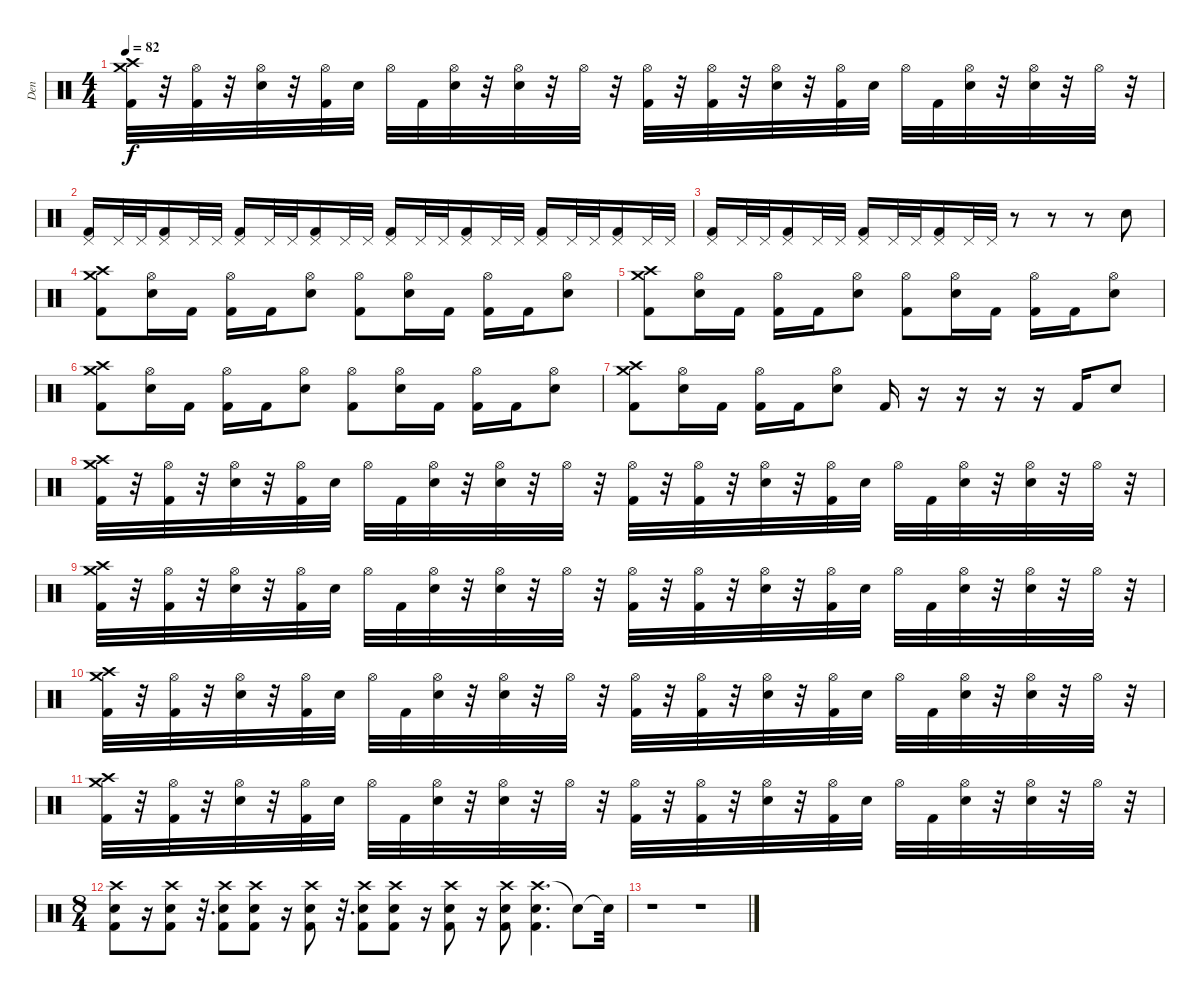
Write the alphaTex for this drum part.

\track ("Den" "Den") {instrument percussion}
\staff {score}
\articulation defaults
\ts (4 4)
\tempo 82
\clef neutral
\ks c
("Crash high (hit)" "Crash medium (hit)" "Kick (hit) 2").32{dy f} r.32 ("Hi-Hat (open)" "Kick (hit) 2").32 r.32 ("Hi-Hat (open)" "Electric Snare (hit)").32 r.32 ("Hi-Hat (open)" "Kick (hit) 2").32 "Electric Snare (hit)".32 "Hi-Hat (open)".32 "Kick (hit) 2".32 ("Hi-Hat (open)" "Electric Snare (hit)").32 r.32 ("Hi-Hat (open)" "Electric Snare (hit)").32 r.32 "Hi-Hat (open)".32 r.32 ("Hi-Hat (open)" "Kick (hit) 2").32 r.32 ("Hi-Hat (open)" "Kick (hit) 2").32 r.32 ("Hi-Hat (open)" "Electric Snare (hit)").32 r.32 ("Hi-Hat (open)" "Kick (hit) 2").32 "Electric Snare (hit)".32 "Hi-Hat (open)".32 "Kick (hit) 2".32 ("Hi-Hat (open)" "Electric Snare (hit)").32 r.32 ("Hi-Hat (open)" "Electric Snare (hit)").32 r.32 "Hi-Hat (open)".32 r.32 |
("Pedal Hi-Hat (hit)" "Kick (hit) 2").16 "Pedal Hi-Hat (hit)".32 "Pedal Hi-Hat (hit)".32 ("Pedal Hi-Hat (hit)" "Kick (hit) 2").16 "Pedal Hi-Hat (hit)".32 "Pedal Hi-Hat (hit)".32 ("Pedal Hi-Hat (hit)" "Kick (hit) 2").16 "Pedal Hi-Hat (hit)".32 "Pedal Hi-Hat (hit)".32 ("Pedal Hi-Hat (hit)" "Kick (hit) 2").16 "Pedal Hi-Hat (hit)".32 "Pedal Hi-Hat (hit)".32 ("Pedal Hi-Hat (hit)" "Kick (hit) 2").16 "Pedal Hi-Hat (hit)".32 "Pedal Hi-Hat (hit)".32 ("Pedal Hi-Hat (hit)" "Kick (hit) 2").16 "Pedal Hi-Hat (hit)".32 "Pedal Hi-Hat (hit)".32 ("Pedal Hi-Hat (hit)" "Kick (hit) 2").16 "Pedal Hi-Hat (hit)".32 "Pedal Hi-Hat (hit)".32 ("Pedal Hi-Hat (hit)" "Kick (hit) 2").16 "Pedal Hi-Hat (hit)".32 "Pedal Hi-Hat (hit)".32 |
("Pedal Hi-Hat (hit)" "Kick (hit) 2").16 "Pedal Hi-Hat (hit)".32 "Pedal Hi-Hat (hit)".32 ("Pedal Hi-Hat (hit)" "Kick (hit) 2").16 "Pedal Hi-Hat (hit)".32 "Pedal Hi-Hat (hit)".32 ("Pedal Hi-Hat (hit)" "Kick (hit) 2").16 "Pedal Hi-Hat (hit)".32 "Pedal Hi-Hat (hit)".32 ("Pedal Hi-Hat (hit)" "Kick (hit) 2").16 "Pedal Hi-Hat (hit)".32 "Pedal Hi-Hat (hit)".32 r.8 r.8 r.8 "Electric Snare (hit)".8 |
("Crash high (hit)" "Crash medium (hit)" "Kick (hit) 2").8 ("Hi-Hat (open)" "Electric Snare (hit)").16 "Kick (hit) 2".16 ("Hi-Hat (open)" "Kick (hit) 2").16 "Kick (hit) 2".16 ("Hi-Hat (open)" "Electric Snare (hit)").8 ("Hi-Hat (open)" "Kick (hit) 2").8 ("Hi-Hat (open)" "Electric Snare (hit)").16 "Kick (hit) 2".16 ("Hi-Hat (open)" "Kick (hit) 2").16 "Kick (hit) 2".16 ("Hi-Hat (open)" "Electric Snare (hit)").8 |
("Crash high (hit)" "Crash medium (hit)" "Kick (hit) 2").8 ("Hi-Hat (open)" "Electric Snare (hit)").16 "Kick (hit) 2".16 ("Hi-Hat (open)" "Kick (hit) 2").16 "Kick (hit) 2".16 ("Hi-Hat (open)" "Electric Snare (hit)").8 ("Hi-Hat (open)" "Kick (hit) 2").8 ("Hi-Hat (open)" "Electric Snare (hit)").16 "Kick (hit) 2".16 ("Hi-Hat (open)" "Kick (hit) 2").16 "Kick (hit) 2".16 ("Hi-Hat (open)" "Electric Snare (hit)").8 |
("Crash high (hit)" "Crash medium (hit)" "Kick (hit) 2").8 ("Hi-Hat (open)" "Electric Snare (hit)").16 "Kick (hit) 2".16 ("Hi-Hat (open)" "Kick (hit) 2").16 "Kick (hit) 2".16 ("Hi-Hat (open)" "Electric Snare (hit)").8 ("Hi-Hat (open)" "Kick (hit) 2").8 ("Hi-Hat (open)" "Electric Snare (hit)").16 "Kick (hit) 2".16 ("Hi-Hat (open)" "Kick (hit) 2").16 "Kick (hit) 2".16 ("Hi-Hat (open)" "Electric Snare (hit)").8 |
("Crash high (hit)" "Crash medium (hit)" "Kick (hit) 2").8 ("Hi-Hat (open)" "Electric Snare (hit)").16 "Kick (hit) 2".16 ("Hi-Hat (open)" "Kick (hit) 2").16 "Kick (hit) 2".16 ("Hi-Hat (open)" "Electric Snare (hit)").8 "Kick (hit) 2".16 r.16 r.16 r.16 r.16 "Kick (hit) 2".16 "Electric Snare (hit)".8 |
("Crash high (hit)" "Crash medium (hit)" "Kick (hit) 2").32 r.32 ("Hi-Hat (open)" "Kick (hit) 2").32 r.32 ("Hi-Hat (open)" "Electric Snare (hit)").32 r.32 ("Hi-Hat (open)" "Kick (hit) 2").32 "Electric Snare (hit)".32 "Hi-Hat (open)".32 "Kick (hit) 2".32 ("Hi-Hat (open)" "Electric Snare (hit)").32 r.32 ("Hi-Hat (open)" "Electric Snare (hit)").32 r.32 "Hi-Hat (open)".32 r.32 ("Hi-Hat (open)" "Kick (hit) 2").32 r.32 ("Hi-Hat (open)" "Kick (hit) 2").32 r.32 ("Hi-Hat (open)" "Electric Snare (hit)").32 r.32 ("Hi-Hat (open)" "Kick (hit) 2").32 "Electric Snare (hit)".32 "Hi-Hat (open)".32 "Kick (hit) 2".32 ("Hi-Hat (open)" "Electric Snare (hit)").32 r.32 ("Hi-Hat (open)" "Electric Snare (hit)").32 r.32 "Hi-Hat (open)".32 r.32 |
("Crash high (hit)" "Crash medium (hit)" "Kick (hit) 2").32 r.32 ("Hi-Hat (open)" "Kick (hit) 2").32 r.32 ("Hi-Hat (open)" "Electric Snare (hit)").32 r.32 ("Hi-Hat (open)" "Kick (hit) 2").32 "Electric Snare (hit)".32 "Hi-Hat (open)".32 "Kick (hit) 2".32 ("Hi-Hat (open)" "Electric Snare (hit)").32 r.32 ("Hi-Hat (open)" "Electric Snare (hit)").32 r.32 "Hi-Hat (open)".32 r.32 ("Hi-Hat (open)" "Kick (hit) 2").32 r.32 ("Hi-Hat (open)" "Kick (hit) 2").32 r.32 ("Hi-Hat (open)" "Electric Snare (hit)").32 r.32 ("Hi-Hat (open)" "Kick (hit) 2").32 "Electric Snare (hit)".32 "Hi-Hat (open)".32 "Kick (hit) 2".32 ("Hi-Hat (open)" "Electric Snare (hit)").32 r.32 ("Hi-Hat (open)" "Electric Snare (hit)").32 r.32 "Hi-Hat (open)".32 r.32 |
("Crash high (hit)" "Crash medium (hit)" "Kick (hit) 2").32 r.32 ("Hi-Hat (open)" "Kick (hit) 2").32 r.32 ("Hi-Hat (open)" "Electric Snare (hit)").32 r.32 ("Hi-Hat (open)" "Kick (hit) 2").32 "Electric Snare (hit)".32 "Hi-Hat (open)".32 "Kick (hit) 2".32 ("Hi-Hat (open)" "Electric Snare (hit)").32 r.32 ("Hi-Hat (open)" "Electric Snare (hit)").32 r.32 "Hi-Hat (open)".32 r.32 ("Hi-Hat (open)" "Kick (hit) 2").32 r.32 ("Hi-Hat (open)" "Kick (hit) 2").32 r.32 ("Hi-Hat (open)" "Electric Snare (hit)").32 r.32 ("Hi-Hat (open)" "Kick (hit) 2").32 "Electric Snare (hit)".32 "Hi-Hat (open)".32 "Kick (hit) 2".32 ("Hi-Hat (open)" "Electric Snare (hit)").32 r.32 ("Hi-Hat (open)" "Electric Snare (hit)").32 r.32 "Hi-Hat (open)".32 r.32 |
("Crash high (hit)" "Crash medium (hit)" "Kick (hit) 2").32 r.32 ("Hi-Hat (open)" "Kick (hit) 2").32 r.32 ("Hi-Hat (open)" "Electric Snare (hit)").32 r.32 ("Hi-Hat (open)" "Kick (hit) 2").32 "Electric Snare (hit)".32 "Hi-Hat (open)".32 "Kick (hit) 2".32 ("Hi-Hat (open)" "Electric Snare (hit)").32 r.32 ("Hi-Hat (open)" "Electric Snare (hit)").32 r.32 "Hi-Hat (open)".32 r.32 ("Hi-Hat (open)" "Kick (hit) 2").32 r.32 ("Hi-Hat (open)" "Kick (hit) 2").32 r.32 ("Hi-Hat (open)" "Electric Snare (hit)").32 r.32 ("Hi-Hat (open)" "Kick (hit) 2").32 "Electric Snare (hit)".32 "Hi-Hat (open)".32 "Kick (hit) 2".32 ("Hi-Hat (open)" "Electric Snare (hit)").32 r.32 ("Hi-Hat (open)" "Electric Snare (hit)").32 r.32 "Hi-Hat (open)".32 r.32 |
\ts (8 4)
("Crash high (hit)" "Electric Snare (hit)" "Kick (hit) 2").8 r.16 ("Crash high (hit)" "Electric Snare (hit)" "Kick (hit) 2").8 r.32{d} ("Crash high (hit)" "Electric Snare (hit)" "Kick (hit) 2").8 ("Crash high (hit)" "Electric Snare (hit)" "Kick (hit) 2").8 r.16 ("Crash high (hit)" "Electric Snare (hit)" "Kick (hit) 2").8 r.32{d} ("Crash high (hit)" "Electric Snare (hit)" "Kick (hit) 2").8 ("Crash high (hit)" "Electric Snare (hit)" "Kick (hit) 2").8 r.16 ("Crash high (hit)" "Electric Snare (hit)" "Kick (hit) 2").8 r.16 ("Crash high (hit)" "Electric Snare (hit)" "Kick (hit) 2").8 ("Crash high (hit)" "Electric Snare (hit)" "Kick (hit) 2").4{d} "Snare (hit)"{t}.8 "Snare (hit)"{t}.32 |
r.1 r.1
